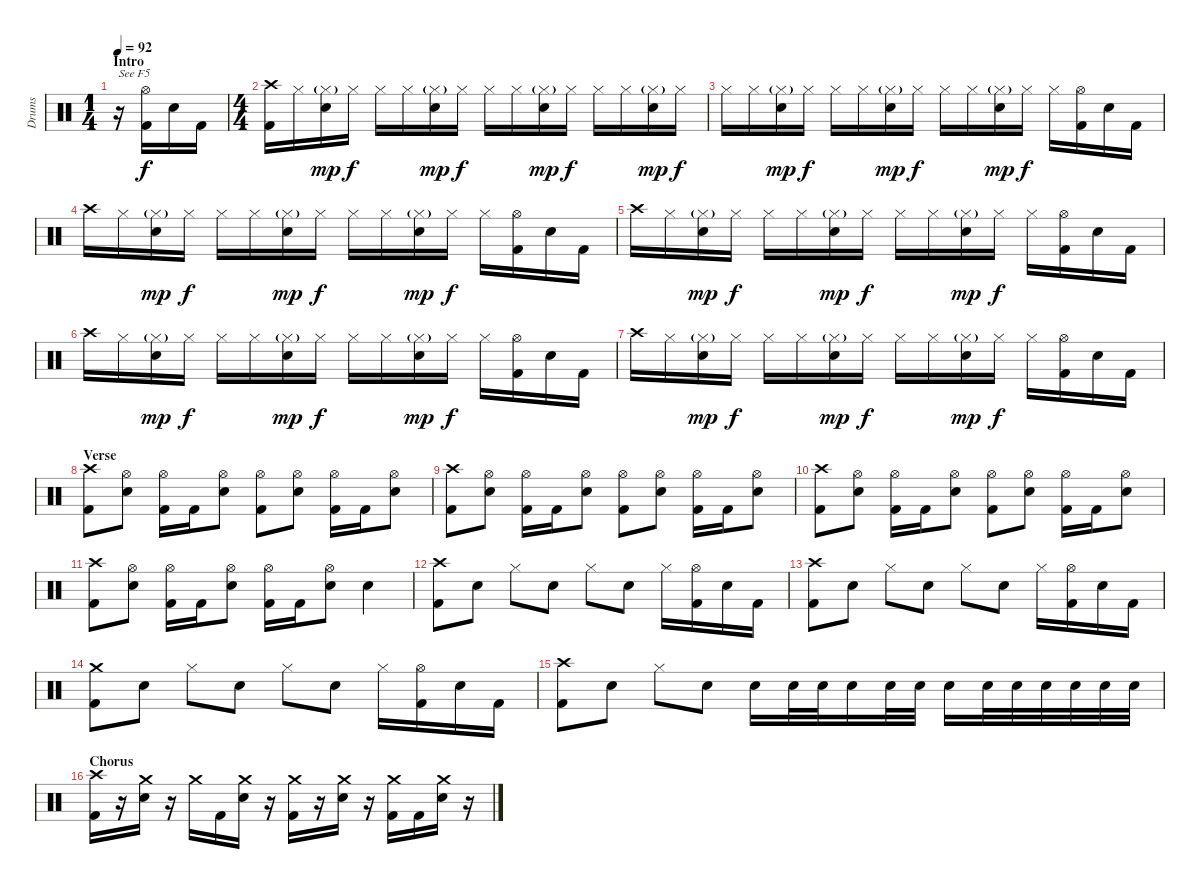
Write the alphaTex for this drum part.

\track ("Drums" "Drums") {instrument percussion}
\staff {score}
\articulation defaults
\ts (1 4)
\section ("" "Intro")
\tempo 92
\clef neutral
\ks c
r.16{txt "See F5" dy f} ("Hi-Hat (open)" "Kick (hit) 2").16 "Electric Snare (hit)".16 "Kick (hit) 2".16 |
\ts (4 4)
("Crash high (hit)" "Kick (hit) 2").16 "Hi-Hat (closed)".16 ("Hi-Hat (closed)"{g} "Electric Snare (hit)").16{dy mp} "Hi-Hat (closed)".16{dy f} "Hi-Hat (closed)".16 "Hi-Hat (closed)".16 ("Hi-Hat (closed)"{g} "Electric Snare (hit)").16{dy mp} "Hi-Hat (closed)".16{dy f} "Hi-Hat (closed)".16 "Hi-Hat (closed)".16 ("Hi-Hat (closed)"{g} "Electric Snare (hit)").16{dy mp} "Hi-Hat (closed)".16{dy f} "Hi-Hat (closed)".16 "Hi-Hat (closed)".16 ("Hi-Hat (closed)"{g} "Electric Snare (hit)").16{dy mp} "Hi-Hat (closed)".16{dy f} |
"Hi-Hat (closed)".16 "Hi-Hat (closed)".16 ("Hi-Hat (closed)"{g} "Electric Snare (hit)").16{dy mp} "Hi-Hat (closed)".16{dy f} "Hi-Hat (closed)".16 "Hi-Hat (closed)".16 ("Hi-Hat (closed)"{g} "Electric Snare (hit)").16{dy mp} "Hi-Hat (closed)".16{dy f} "Hi-Hat (closed)".16 "Hi-Hat (closed)".16 ("Hi-Hat (closed)"{g} "Electric Snare (hit)").16{dy mp} "Hi-Hat (closed)".16{dy f} "Hi-Hat (closed)".16 ("Hi-Hat (open)" "Kick (hit) 2").16 "Electric Snare (hit)".16 "Kick (hit) 2".16 |
"Crash high (hit)".16 "Hi-Hat (closed)".16 ("Hi-Hat (closed)"{g} "Electric Snare (hit)").16{dy mp} "Hi-Hat (closed)".16{dy f} "Hi-Hat (closed)".16 "Hi-Hat (closed)".16 ("Hi-Hat (closed)"{g} "Electric Snare (hit)").16{dy mp} "Hi-Hat (closed)".16{dy f} "Hi-Hat (closed)".16 "Hi-Hat (closed)".16 ("Hi-Hat (closed)"{g} "Electric Snare (hit)").16{dy mp} "Hi-Hat (closed)".16{dy f} "Hi-Hat (closed)".16 ("Hi-Hat (open)" "Kick (hit) 2").16 "Electric Snare (hit)".16 "Kick (hit) 2".16 |
"Crash high (hit)".16 "Hi-Hat (closed)".16 ("Hi-Hat (closed)"{g} "Electric Snare (hit)").16{dy mp} "Hi-Hat (closed)".16{dy f} "Hi-Hat (closed)".16 "Hi-Hat (closed)".16 ("Hi-Hat (closed)"{g} "Electric Snare (hit)").16{dy mp} "Hi-Hat (closed)".16{dy f} "Hi-Hat (closed)".16 "Hi-Hat (closed)".16 ("Hi-Hat (closed)"{g} "Electric Snare (hit)").16{dy mp} "Hi-Hat (closed)".16{dy f} "Hi-Hat (closed)".16 ("Hi-Hat (open)" "Kick (hit) 2").16 "Electric Snare (hit)".16 "Kick (hit) 2".16 |
"Crash high (hit)".16 "Hi-Hat (closed)".16 ("Hi-Hat (closed)"{g} "Electric Snare (hit)").16{dy mp} "Hi-Hat (closed)".16{dy f} "Hi-Hat (closed)".16 "Hi-Hat (closed)".16 ("Hi-Hat (closed)"{g} "Electric Snare (hit)").16{dy mp} "Hi-Hat (closed)".16{dy f} "Hi-Hat (closed)".16 "Hi-Hat (closed)".16 ("Hi-Hat (closed)"{g} "Electric Snare (hit)").16{dy mp} "Hi-Hat (closed)".16{dy f} "Hi-Hat (closed)".16 ("Hi-Hat (open)" "Kick (hit) 2").16 "Electric Snare (hit)".16 "Kick (hit) 2".16 |
"Crash high (hit)".16 "Hi-Hat (closed)".16 ("Hi-Hat (closed)"{g} "Electric Snare (hit)").16{dy mp} "Hi-Hat (closed)".16{dy f} "Hi-Hat (closed)".16 "Hi-Hat (closed)".16 ("Hi-Hat (closed)"{g} "Electric Snare (hit)").16{dy mp} "Hi-Hat (closed)".16{dy f} "Hi-Hat (closed)".16 "Hi-Hat (closed)".16 ("Hi-Hat (closed)"{g} "Electric Snare (hit)").16{dy mp} "Hi-Hat (closed)".16{dy f} "Hi-Hat (closed)".16 ("Hi-Hat (open)" "Kick (hit) 2").16 "Electric Snare (hit)".16 "Kick (hit) 2".16 |
\section ("" "Verse")
("Crash high (hit)" "Kick (hit) 2").8 ("Hi-Hat (open)" "Electric Snare (hit)").8 ("Hi-Hat (open)" "Kick (hit) 2").16 "Kick (hit) 2".16 ("Hi-Hat (open)" "Electric Snare (hit)").8 ("Hi-Hat (open)" "Kick (hit) 2").8 ("Hi-Hat (open)" "Electric Snare (hit)").8 ("Hi-Hat (open)" "Kick (hit) 2").16 "Kick (hit) 2".16 ("Hi-Hat (open)" "Electric Snare (hit)").8 |
("Crash high (hit)" "Kick (hit) 2").8 ("Hi-Hat (open)" "Electric Snare (hit)").8 ("Hi-Hat (open)" "Kick (hit) 2").16 "Kick (hit) 2".16 ("Hi-Hat (open)" "Electric Snare (hit)").8 ("Hi-Hat (open)" "Kick (hit) 2").8 ("Hi-Hat (open)" "Electric Snare (hit)").8 ("Hi-Hat (open)" "Kick (hit) 2").16 "Kick (hit) 2".16 ("Hi-Hat (open)" "Electric Snare (hit)").8 |
("Crash high (hit)" "Kick (hit) 2").8 ("Hi-Hat (open)" "Electric Snare (hit)").8 ("Hi-Hat (open)" "Kick (hit) 2").16 "Kick (hit) 2".16 ("Hi-Hat (open)" "Electric Snare (hit)").8 ("Hi-Hat (open)" "Kick (hit) 2").8 ("Hi-Hat (open)" "Electric Snare (hit)").8 ("Hi-Hat (open)" "Kick (hit) 2").16 "Kick (hit) 2".16 ("Hi-Hat (open)" "Electric Snare (hit)").8 |
("Crash high (hit)" "Kick (hit) 2").8 ("Hi-Hat (open)" "Electric Snare (hit)").8 ("Hi-Hat (open)" "Kick (hit) 2").16 "Kick (hit) 2".16 ("Hi-Hat (open)" "Electric Snare (hit)").8 ("Hi-Hat (open)" "Kick (hit) 2").16 "Kick (hit) 2".16 ("Hi-Hat (open)" "Electric Snare (hit)").8 "Electric Snare (hit)".4 |
("Crash high (hit)" "Kick (hit) 2").8 "Electric Snare (hit)".8 "Hi-Hat (closed)".8 "Electric Snare (hit)".8 "Hi-Hat (closed)".8 "Electric Snare (hit)".8 "Hi-Hat (closed)".16 ("Hi-Hat (open)" "Kick (hit) 2").16 "Electric Snare (hit)".16 "Kick (hit) 2".16 |
("Crash high (hit)" "Kick (hit) 2").8 "Electric Snare (hit)".8 "Hi-Hat (closed)".8 "Electric Snare (hit)".8 "Hi-Hat (closed)".8 "Electric Snare (hit)".8 "Hi-Hat (closed)".16 ("Hi-Hat (open)" "Kick (hit) 2").16 "Electric Snare (hit)".16 "Kick (hit) 2".16 |
("Crash medium (hit)" "Kick (hit) 2").8 "Electric Snare (hit)".8 "Hi-Hat (closed)".8 "Electric Snare (hit)".8 "Hi-Hat (closed)".8 "Electric Snare (hit)".8 "Hi-Hat (closed)".16 ("Hi-Hat (open)" "Kick (hit) 2").16 "Electric Snare (hit)".16 "Kick (hit) 2".16 |
("Crash high (hit)" "Kick (hit) 2").8 "Electric Snare (hit)".8 "Hi-Hat (closed)".8 "Electric Snare (hit)".8 "Electric Snare (hit)".16 "Electric Snare (hit)".32 "Electric Snare (hit)".32 "Electric Snare (hit)".16 "Electric Snare (hit)".32 "Electric Snare (hit)".32 "Electric Snare (hit)".16 "Electric Snare (hit)".32 "Electric Snare (hit)".32 "Electric Snare (hit)".32 "Electric Snare (hit)".32 "Electric Snare (hit)".32 "Electric Snare (hit)".32 |
\section ("" "Chorus")
("Crash high (hit)" "Kick (hit) 2").16 r.16 ("Crash medium (hit)" "Electric Snare (hit)").16 r.16 "Crash medium (hit)".16 "Kick (hit) 2".16 ("Crash medium (hit)" "Electric Snare (hit)").16 r.16 ("Crash medium (hit)" "Kick (hit) 2").16 r.16 ("Crash medium (hit)" "Electric Snare (hit)").16 r.16 ("Crash medium (hit)" "Kick (hit) 2").16 "Kick (hit) 2".16 ("Crash medium (hit)" "Electric Snare (hit)").16 r.16
